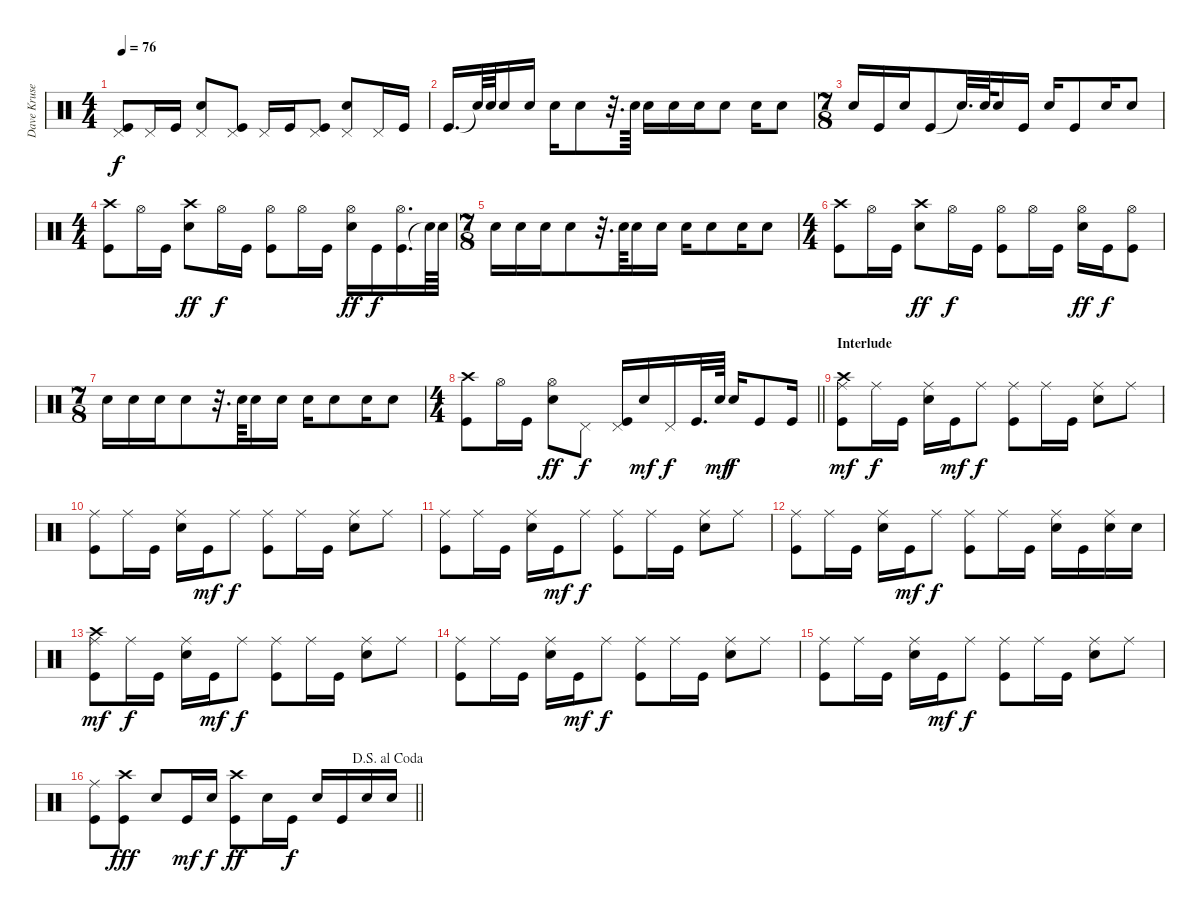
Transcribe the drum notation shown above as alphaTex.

\track ("Dave Krusen" "Dave Kruse") {instrument percussion}
\staff {score}
\articulation defaults
\ts (4 4)
\tempo 76
\clef neutral
\ks c
("Pedal Hi-Hat (hit)" "Kick (hit)").8{dy f} "Pedal Hi-Hat (hit)".16 "Kick (hit)".16 ("Pedal Hi-Hat (hit)" "Electric Snare (hit)").8 ("Pedal Hi-Hat (hit)" "Kick (hit)").8 "Pedal Hi-Hat (hit)".16 "Kick (hit)".16 ("Pedal Hi-Hat (hit)" "Kick (hit)").8 ("Pedal Hi-Hat (hit)" "Electric Snare (hit)").8 "Pedal Hi-Hat (hit)".16 "Kick (hit)".16 |
"Kick (hit)".16{d} "Snare (hit)"{t}.64 "Electric Snare (hit)".64 "Electric Snare (hit)".16 "Electric Snare (hit)".16 "Electric Snare (hit)".16 "Electric Snare (hit)".8 r.32{d} "Electric Snare (hit)".64 "Electric Snare (hit)".16 "Electric Snare (hit)".16 "Electric Snare (hit)".16 "Electric Snare (hit)".8 "Electric Snare (hit)".16 "Electric Snare (hit)".8 |
\ts (7 8)
"Electric Snare (hit)".16 "Kick (hit)".16 "Electric Snare (hit)".16 "Kick (hit)".8 "Snare (hit)"{t}.32{d} "Electric Snare (hit)".64 "Electric Snare (hit)".16 "Kick (hit)".16 "Electric Snare (hit)".16 "Kick (hit)".8 "Electric Snare (hit)".16 "Electric Snare (hit)".8 |
\ts (4 4)
("Crash high (hit)" "Kick (hit)").8 "Hi-Hat (open)".16 "Kick (hit)".16 ("Crash high (hit)" "Electric Snare (hit)").8{dy ff} "Hi-Hat (open)".16{dy f} "Kick (hit)".16 ("Kick (hit)" "Hi-Hat (open)").8 "Hi-Hat (open)".16 "Kick (hit)".16 ("Electric Snare (hit)" "Hi-Hat (open)").16{dy ff} "Kick (hit)".16{dy f} ("Kick (hit)" "Hi-Hat (open)").16{d} "Snare (hit)"{t}.64 "Electric Snare (hit)".64 |
\ts (7 8)
"Electric Snare (hit)".16 "Electric Snare (hit)".16 "Electric Snare (hit)".16 "Electric Snare (hit)".8 r.32{d} "Electric Snare (hit)".64 "Electric Snare (hit)".16 "Electric Snare (hit)".16 "Electric Snare (hit)".16 "Electric Snare (hit)".8 "Electric Snare (hit)".16 "Electric Snare (hit)".8 |
\ts (4 4)
("Crash high (hit)" "Kick (hit)").8 "Hi-Hat (open)".16 "Kick (hit)".16 ("Crash high (hit)" "Electric Snare (hit)").8{dy ff} "Hi-Hat (open)".16{dy f} "Kick (hit)".16 ("Kick (hit)" "Hi-Hat (open)").8 "Hi-Hat (open)".16 "Kick (hit)".16 ("Electric Snare (hit)" "Hi-Hat (open)").16{dy ff} "Kick (hit)".16{dy f} ("Kick (hit)" "Hi-Hat (open)").8 |
\ts (7 8)
"Electric Snare (hit)".16 "Electric Snare (hit)".16 "Electric Snare (hit)".16 "Electric Snare (hit)".8 r.32{d} "Electric Snare (hit)".64 "Electric Snare (hit)".16 "Electric Snare (hit)".16 "Electric Snare (hit)".16 "Electric Snare (hit)".8 "Electric Snare (hit)".16 "Electric Snare (hit)".8 |
\ts (4 4)
\barLineRight lightlight
("Crash high (hit)" "Kick (hit)").8 "Hi-Hat (open)".16 "Kick (hit)".16 ("Hi-Hat (open)" "Electric Snare (hit)").8{dy ff} "Pedal Hi-Hat (hit)".8{dy f} ("Kick (hit)" "Pedal Hi-Hat (hit)").16 "Electric Snare (hit)".16{dy mf} "Pedal Hi-Hat (hit)".16{dy f} "Kick (hit)".32{d} "Electric Snare (hit)".64{dy mf} "Electric Snare (hit)".16{dy f} "Kick (hit)".8 "Kick (hit)".16 |
\section ("" "Interlude")
("Crash high (hit)" "Kick (hit)" "Ride (middle)").8{dy mf} "Ride (middle)".16{dy f} "Kick (hit)".16 ("Electric Snare (hit)" "Ride (middle)").16 "Kick (hit)".16{dy mf} "Ride (middle)".8{dy f} ("Kick (hit)" "Ride (middle)").8 "Ride (middle)".16 "Kick (hit)".16 ("Electric Snare (hit)" "Ride (middle)").8 "Ride (middle)".8 |
("Ride (middle)" "Kick (hit)").8 "Ride (middle)".16 "Kick (hit)".16 ("Ride (middle)" "Electric Snare (hit)").16 "Kick (hit)".16{dy mf} "Ride (middle)".8{dy f} ("Ride (middle)" "Kick (hit)").8 "Ride (middle)".16 "Kick (hit)".16 ("Ride (middle)" "Electric Snare (hit)").8 "Ride (middle)".8 |
("Ride (middle)" "Kick (hit)").8 "Ride (middle)".16 "Kick (hit)".16 ("Ride (middle)" "Electric Snare (hit)").16 "Kick (hit)".16{dy mf} "Ride (middle)".8{dy f} ("Ride (middle)" "Kick (hit)").8 "Ride (middle)".16 "Kick (hit)".16 ("Ride (middle)" "Electric Snare (hit)").8 "Ride (middle)".8 |
("Ride (middle)" "Kick (hit)").8 "Ride (middle)".16 "Kick (hit)".16 ("Ride (middle)" "Electric Snare (hit)").16 "Kick (hit)".16{dy mf} "Ride (middle)".8{dy f} ("Ride (middle)" "Kick (hit)").8 "Ride (middle)".16 "Kick (hit)".16 ("Ride (middle)" "Electric Snare (hit)").16 "Kick (hit)".16 ("Ride (middle)" "Electric Snare (hit)").16 "Electric Snare (hit)".16 |
("Ride (middle)" "Crash high (hit)" "Kick (hit)").8{dy mf} "Ride (middle)".16{dy f} "Kick (hit)".16 ("Ride (middle)" "Electric Snare (hit)").16 "Kick (hit)".16{dy mf} "Ride (middle)".8{dy f} ("Ride (middle)" "Kick (hit)").8 "Ride (middle)".16 "Kick (hit)".16 ("Ride (middle)" "Electric Snare (hit)").8 "Ride (middle)".8 |
("Ride (middle)" "Kick (hit)").8 "Ride (middle)".16 "Kick (hit)".16 ("Ride (middle)" "Electric Snare (hit)").16 "Kick (hit)".16{dy mf} "Ride (middle)".8{dy f} ("Ride (middle)" "Kick (hit)").8 "Ride (middle)".16 "Kick (hit)".16 ("Ride (middle)" "Electric Snare (hit)").8 "Ride (middle)".8 |
("Ride (middle)" "Kick (hit)").8 "Ride (middle)".16 "Kick (hit)".16 ("Ride (middle)" "Electric Snare (hit)").16 "Kick (hit)".16{dy mf} "Ride (middle)".8{dy f} ("Ride (middle)" "Kick (hit)").8 "Ride (middle)".16 "Kick (hit)".16 ("Ride (middle)" "Electric Snare (hit)").8 "Ride (middle)".8 |
\jump dalsegnoalcoda
\barLineRight lightlight
("Ride (middle)" "Kick (hit)").8 ("Kick (hit)" "Crash high (hit)").8{dy fff} "Electric Snare (hit)".8 "Kick (hit)".16{dy mf} "Electric Snare (hit)".16{dy f} ("Crash high (hit)" "Kick (hit)").8{dy ff} "Electric Snare (hit)".16 "Kick (hit)".16{dy f} "Electric Snare (hit)".16 "Kick (hit)".16 "Electric Snare (hit)".16 "Electric Snare (hit)".16
